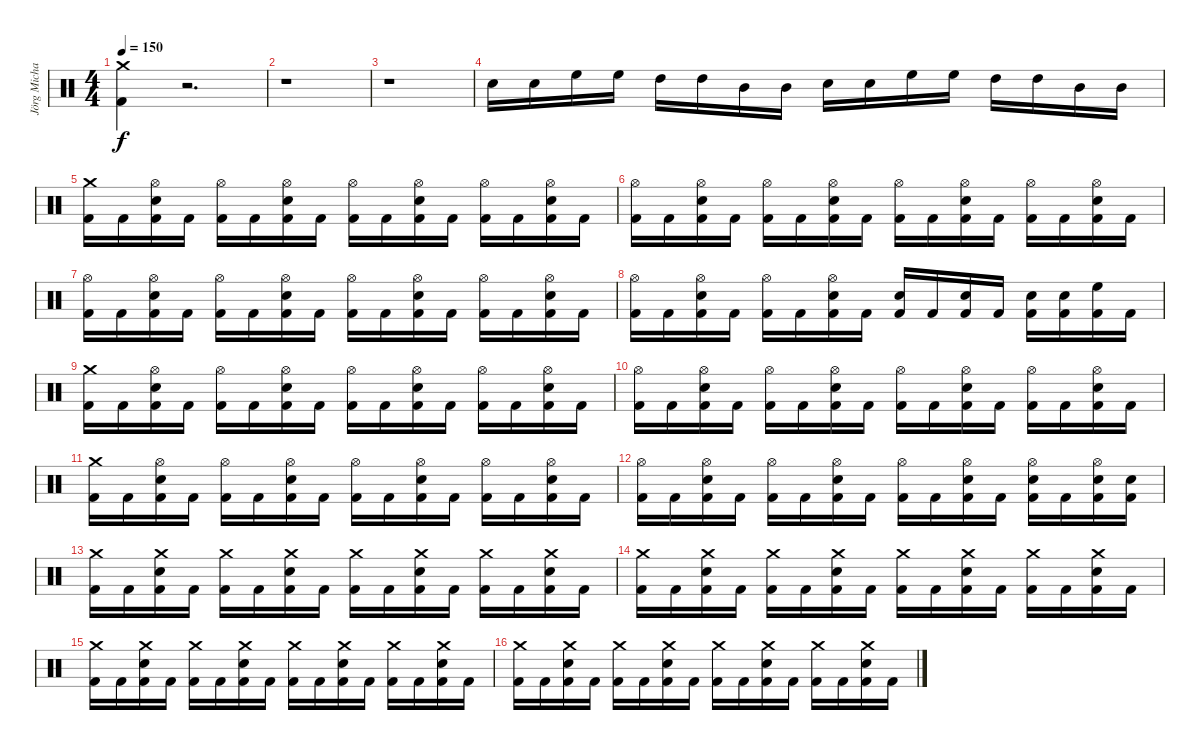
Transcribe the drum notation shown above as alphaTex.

\track ("Jörg Michael" "Jörg Micha") {instrument percussion}
\staff {score}
\articulation defaults
\ts (4 4)
\tempo 150
\clef neutral
\ks c
("Kick (hit) 2" "Crash medium (hit)").4{dy f} r.2{d} |
r.1 |
r.1 |
"Snare (hit) 2".16 "Snare (hit) 2".16 "High Floor Tom (hit)".16 "High Floor Tom (hit)".16 "High Tom (hit)".16 "High Tom (hit)".16 "Mid Tom (hit)".16 "Mid Tom (hit)".16 "Snare (hit) 2".16 "Snare (hit) 2".16 "High Floor Tom (hit)".16 "High Floor Tom (hit)".16 "High Tom (hit)".16 "High Tom (hit)".16 "Mid Tom (hit)".16 "Mid Tom (hit)".16 |
("Kick (hit) 2" "Crash medium (hit)").16 "Kick (hit) 2".16 ("Kick (hit) 2" "Snare (hit) 2" "Hi-Hat (open)").16 "Kick (hit) 2".16 ("Kick (hit) 2" "Hi-Hat (open)").16 "Kick (hit) 2".16 ("Kick (hit) 2" "Snare (hit) 2" "Hi-Hat (open)").16 "Kick (hit) 2".16 ("Kick (hit) 2" "Hi-Hat (open)").16 "Kick (hit) 2".16 ("Kick (hit) 2" "Snare (hit) 2" "Hi-Hat (open)").16 "Kick (hit) 2".16 ("Kick (hit) 2" "Hi-Hat (open)").16 "Kick (hit) 2".16 ("Kick (hit) 2" "Snare (hit) 2" "Hi-Hat (open)").16 "Kick (hit) 2".16 |
("Hi-Hat (open)" "Kick (hit) 2").16 "Kick (hit) 2".16 ("Kick (hit) 2" "Snare (hit) 2" "Hi-Hat (open)").16 "Kick (hit) 2".16 ("Kick (hit) 2" "Hi-Hat (open)").16 "Kick (hit) 2".16 ("Kick (hit) 2" "Snare (hit) 2" "Hi-Hat (open)").16 "Kick (hit) 2".16 ("Kick (hit) 2" "Hi-Hat (open)").16 "Kick (hit) 2".16 ("Kick (hit) 2" "Snare (hit) 2" "Hi-Hat (open)").16 "Kick (hit) 2".16 ("Kick (hit) 2" "Hi-Hat (open)").16 "Kick (hit) 2".16 ("Kick (hit) 2" "Snare (hit) 2" "Hi-Hat (open)").16 "Kick (hit) 2".16 |
("Hi-Hat (open)" "Kick (hit) 2").16 "Kick (hit) 2".16 ("Kick (hit) 2" "Snare (hit) 2" "Hi-Hat (open)").16 "Kick (hit) 2".16 ("Kick (hit) 2" "Hi-Hat (open)").16 "Kick (hit) 2".16 ("Kick (hit) 2" "Snare (hit) 2" "Hi-Hat (open)").16 "Kick (hit) 2".16 ("Kick (hit) 2" "Hi-Hat (open)").16 "Kick (hit) 2".16 ("Kick (hit) 2" "Snare (hit) 2" "Hi-Hat (open)").16 "Kick (hit) 2".16 ("Kick (hit) 2" "Hi-Hat (open)").16 "Kick (hit) 2".16 ("Kick (hit) 2" "Snare (hit) 2" "Hi-Hat (open)").16 "Kick (hit) 2".16 |
("Hi-Hat (open)" "Kick (hit) 2").16 "Kick (hit) 2".16 ("Kick (hit) 2" "Snare (hit) 2" "Hi-Hat (open)").16 "Kick (hit) 2".16 ("Kick (hit) 2" "Hi-Hat (open)").16 "Kick (hit) 2".16 ("Kick (hit) 2" "Snare (hit) 2" "Hi-Hat (open)").16 "Kick (hit) 2".16 ("Snare (hit) 2" "Kick (hit) 2").16 "Kick (hit) 2".16 ("Snare (hit) 2" "Kick (hit) 2").16 "Kick (hit) 2".16 ("Snare (hit) 2" "Kick (hit) 2").16 ("Snare (hit) 2" "Kick (hit) 2").16 ("High Floor Tom (hit)" "Kick (hit) 2").16 "Kick (hit) 2".16 |
("Kick (hit) 2" "Crash medium (hit)").16 "Kick (hit) 2".16 ("Kick (hit) 2" "Snare (hit) 2" "Hi-Hat (open)").16 "Kick (hit) 2".16 ("Kick (hit) 2" "Hi-Hat (open)").16 "Kick (hit) 2".16 ("Kick (hit) 2" "Snare (hit) 2" "Hi-Hat (open)").16 "Kick (hit) 2".16 ("Kick (hit) 2" "Hi-Hat (open)").16 "Kick (hit) 2".16 ("Kick (hit) 2" "Snare (hit) 2" "Hi-Hat (open)").16 "Kick (hit) 2".16 ("Kick (hit) 2" "Hi-Hat (open)").16 "Kick (hit) 2".16 ("Kick (hit) 2" "Snare (hit) 2" "Hi-Hat (open)").16 "Kick (hit) 2".16 |
("Hi-Hat (open)" "Kick (hit) 2").16 "Kick (hit) 2".16 ("Kick (hit) 2" "Snare (hit) 2" "Hi-Hat (open)").16 "Kick (hit) 2".16 ("Kick (hit) 2" "Hi-Hat (open)").16 "Kick (hit) 2".16 ("Kick (hit) 2" "Snare (hit) 2" "Hi-Hat (open)").16 "Kick (hit) 2".16 ("Kick (hit) 2" "Hi-Hat (open)").16 "Kick (hit) 2".16 ("Kick (hit) 2" "Snare (hit) 2" "Hi-Hat (open)").16 "Kick (hit) 2".16 ("Kick (hit) 2" "Hi-Hat (open)").16 "Kick (hit) 2".16 ("Kick (hit) 2" "Snare (hit) 2" "Hi-Hat (open)").16 "Kick (hit) 2".16 |
("Kick (hit) 2" "Crash medium (hit)").16 "Kick (hit) 2".16 ("Kick (hit) 2" "Snare (hit) 2" "Hi-Hat (open)").16 "Kick (hit) 2".16 ("Kick (hit) 2" "Hi-Hat (open)").16 "Kick (hit) 2".16 ("Kick (hit) 2" "Snare (hit) 2" "Hi-Hat (open)").16 "Kick (hit) 2".16 ("Kick (hit) 2" "Hi-Hat (open)").16 "Kick (hit) 2".16 ("Kick (hit) 2" "Snare (hit) 2" "Hi-Hat (open)").16 "Kick (hit) 2".16 ("Kick (hit) 2" "Hi-Hat (open)").16 "Kick (hit) 2".16 ("Kick (hit) 2" "Snare (hit) 2" "Hi-Hat (open)").16 "Kick (hit) 2".16 |
("Hi-Hat (open)" "Kick (hit) 2").16 "Kick (hit) 2".16 ("Kick (hit) 2" "Snare (hit) 2" "Hi-Hat (open)").16 "Kick (hit) 2".16 ("Kick (hit) 2" "Hi-Hat (open)").16 "Kick (hit) 2".16 ("Kick (hit) 2" "Snare (hit) 2" "Hi-Hat (open)").16 "Kick (hit) 2".16 ("Kick (hit) 2" "Hi-Hat (open)").16 "Kick (hit) 2".16 ("Kick (hit) 2" "Snare (hit) 2" "Hi-Hat (open)").16 "Kick (hit) 2".16 ("Snare (hit) 2" "Kick (hit) 2" "Hi-Hat (open)").16 "Kick (hit) 2".16 ("Kick (hit) 2" "Snare (hit) 2" "Hi-Hat (open)").16 ("Snare (hit) 2" "Kick (hit) 2").16 |
("Crash medium (hit)" "Kick (hit) 2").16 "Kick (hit) 2".16 ("Snare (hit) 2" "Crash medium (hit)" "Kick (hit) 2").16 "Kick (hit) 2".16 ("Crash medium (hit)" "Kick (hit) 2").16 "Kick (hit) 2".16 ("Snare (hit) 2" "Crash medium (hit)" "Kick (hit) 2").16 "Kick (hit) 2".16 ("Crash medium (hit)" "Kick (hit) 2").16 "Kick (hit) 2".16 ("Snare (hit) 2" "Crash medium (hit)" "Kick (hit) 2").16 "Kick (hit) 2".16 ("Crash medium (hit)" "Kick (hit) 2").16 "Kick (hit) 2".16 ("Snare (hit) 2" "Crash medium (hit)" "Kick (hit) 2").16 "Kick (hit) 2".16 |
("Crash medium (hit)" "Kick (hit) 2").16 "Kick (hit) 2".16 ("Snare (hit) 2" "Crash medium (hit)" "Kick (hit) 2").16 "Kick (hit) 2".16 ("Crash medium (hit)" "Kick (hit) 2").16 "Kick (hit) 2".16 ("Snare (hit) 2" "Crash medium (hit)" "Kick (hit) 2").16 "Kick (hit) 2".16 ("Crash medium (hit)" "Kick (hit) 2").16 "Kick (hit) 2".16 ("Snare (hit) 2" "Crash medium (hit)" "Kick (hit) 2").16 "Kick (hit) 2".16 ("Crash medium (hit)" "Kick (hit) 2").16 "Kick (hit) 2".16 ("Snare (hit) 2" "Crash medium (hit)" "Kick (hit) 2").16 "Kick (hit) 2".16 |
("Crash medium (hit)" "Kick (hit) 2").16 "Kick (hit) 2".16 ("Snare (hit) 2" "Crash medium (hit)" "Kick (hit) 2").16 "Kick (hit) 2".16 ("Crash medium (hit)" "Kick (hit) 2").16 "Kick (hit) 2".16 ("Snare (hit) 2" "Crash medium (hit)" "Kick (hit) 2").16 "Kick (hit) 2".16 ("Crash medium (hit)" "Kick (hit) 2").16 "Kick (hit) 2".16 ("Snare (hit) 2" "Crash medium (hit)" "Kick (hit) 2").16 "Kick (hit) 2".16 ("Crash medium (hit)" "Kick (hit) 2").16 "Kick (hit) 2".16 ("Snare (hit) 2" "Crash medium (hit)" "Kick (hit) 2").16 "Kick (hit) 2".16 |
("Crash medium (hit)" "Kick (hit) 2").16 "Kick (hit) 2".16 ("Snare (hit) 2" "Crash medium (hit)" "Kick (hit) 2").16 "Kick (hit) 2".16 ("Crash medium (hit)" "Kick (hit) 2").16 "Kick (hit) 2".16 ("Snare (hit) 2" "Crash medium (hit)" "Kick (hit) 2").16 "Kick (hit) 2".16 ("Crash medium (hit)" "Kick (hit) 2").16 "Kick (hit) 2".16 ("Snare (hit) 2" "Crash medium (hit)" "Kick (hit) 2").16 "Kick (hit) 2".16 ("Crash medium (hit)" "Kick (hit) 2").16 "Kick (hit) 2".16 ("Snare (hit) 2" "Crash medium (hit)" "Kick (hit) 2").16 "Kick (hit) 2".16
